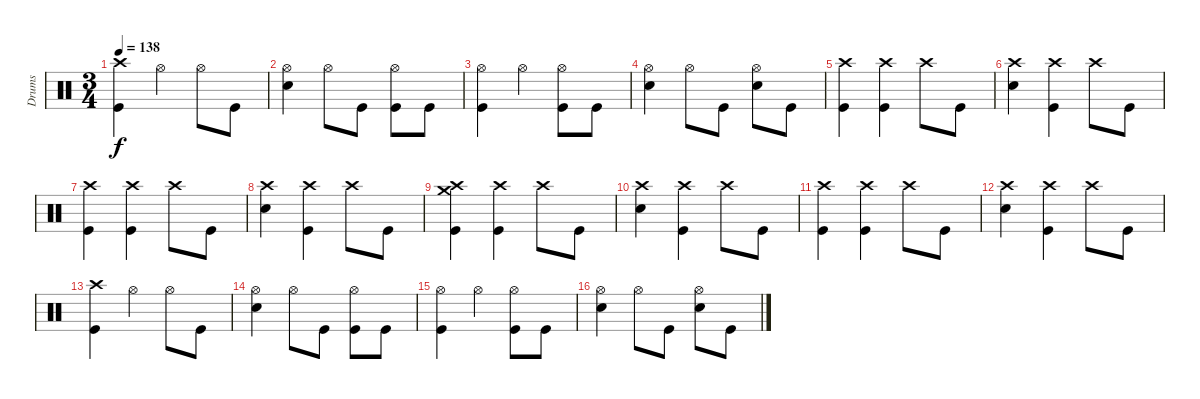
\track ("Drums" "Drums") {instrument percussion}
\staff {score}
\articulation defaults
\ts (3 4)
\tempo 138
\clef neutral
\ks c
("Crash high (hit)" "Kick (hit)").4{dy f} "Hi-Hat (open)".4 "Hi-Hat (open)".8 "Kick (hit)".8 |
("Hi-Hat (open)" "Snare (hit) 2").4 "Hi-Hat (open)".8 "Kick (hit)".8 ("Hi-Hat (open)" "Kick (hit)").8 "Kick (hit)".8 |
("Hi-Hat (open)" "Kick (hit)").4 "Hi-Hat (open)".4 ("Hi-Hat (open)" "Kick (hit)").8 "Kick (hit)".8 |
("Hi-Hat (open)" "Snare (hit) 2").4 "Hi-Hat (open)".8 "Kick (hit)".8 ("Hi-Hat (open)" "Snare (hit) 2").8 "Kick (hit)".8 |
("Crash high (hit)" "Kick (hit)").4 ("Crash high (hit)" "Kick (hit)").4 "Crash high (hit)".8 "Kick (hit)".8 |
("Crash high (hit)" "Snare (hit) 2").4 ("Crash high (hit)" "Kick (hit)").4 "Crash high (hit)".8 "Kick (hit)".8 |
("Crash high (hit)" "Kick (hit)").4 ("Crash high (hit)" "Kick (hit)").4 "Crash high (hit)".8 "Kick (hit)".8 |
("Crash high (hit)" "Snare (hit) 2").4 ("Crash high (hit)" "Kick (hit)").4 "Crash high (hit)".8 "Kick (hit)".8 |
("Crash medium (hit)" "Crash high (hit)" "Kick (hit)").4 ("Crash high (hit)" "Kick (hit)").4 "Crash high (hit)".8 "Kick (hit)".8 |
("Crash high (hit)" "Snare (hit) 2").4 ("Crash high (hit)" "Kick (hit)").4 "Crash high (hit)".8 "Kick (hit)".8 |
("Crash high (hit)" "Kick (hit)").4 ("Crash high (hit)" "Kick (hit)").4 "Crash high (hit)".8 "Kick (hit)".8 |
("Crash high (hit)" "Snare (hit) 2").4 ("Crash high (hit)" "Kick (hit)").4 "Crash high (hit)".8 "Kick (hit)".8 |
("Crash high (hit)" "Kick (hit)").4 "Hi-Hat (open)".4 "Hi-Hat (open)".8 "Kick (hit)".8 |
("Hi-Hat (open)" "Snare (hit) 2").4 "Hi-Hat (open)".8 "Kick (hit)".8 ("Hi-Hat (open)" "Kick (hit)").8 "Kick (hit)".8 |
("Hi-Hat (open)" "Kick (hit)").4 "Hi-Hat (open)".4 ("Hi-Hat (open)" "Kick (hit)").8 "Kick (hit)".8 |
("Hi-Hat (open)" "Snare (hit) 2").4 "Hi-Hat (open)".8 "Kick (hit)".8 ("Hi-Hat (open)" "Snare (hit) 2").8 "Kick (hit)".8
